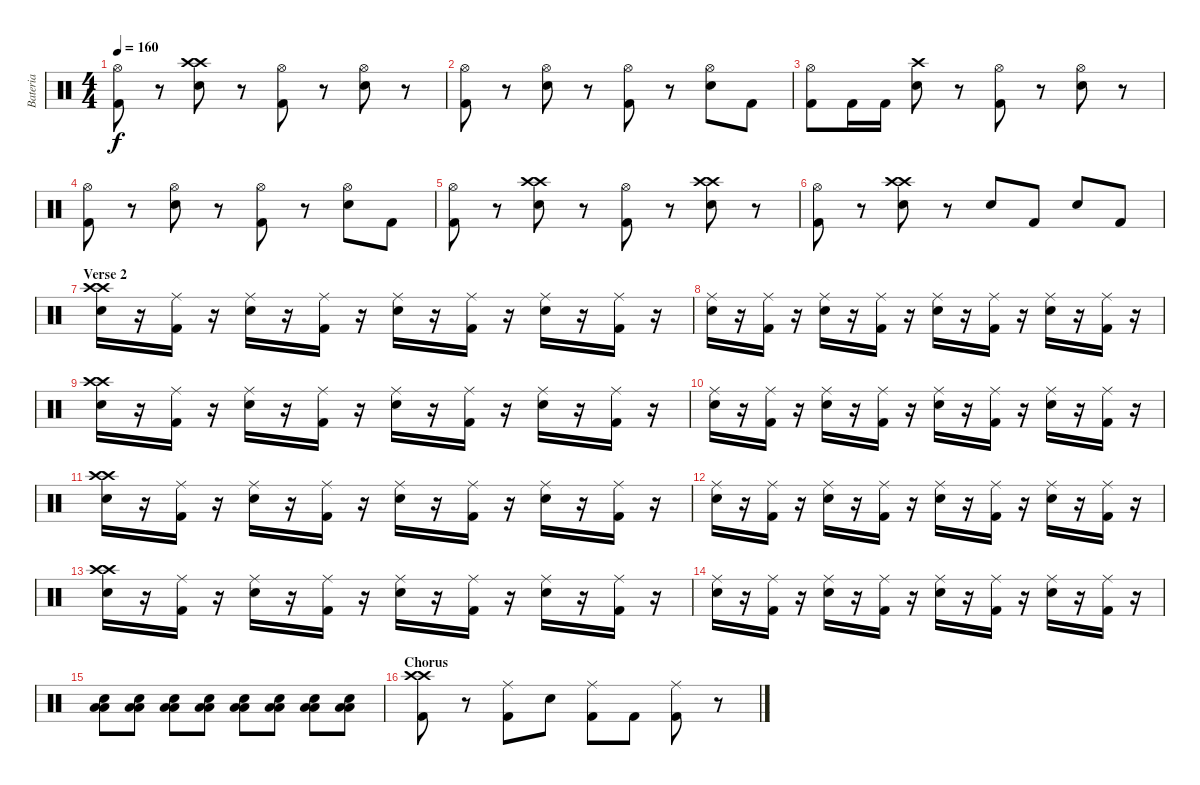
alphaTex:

\track ("Bateria" "Bateria") {instrument percussion}
\staff {score}
\articulation defaults
\ts (4 4)
\tempo 160
\clef neutral
\ks c
("Hi-Hat (open)" "Kick (hit) 2").8{dy f} r.8 ("Crash high (hit)" "Crash high (hit)" "Snare (hit) 2").8 r.8 ("Hi-Hat (open)" "Kick (hit) 2").8 r.8 ("Hi-Hat (open)" "Snare (hit) 2").8 r.8 |
("Hi-Hat (open)" "Kick (hit) 2").8 r.8 ("Hi-Hat (open)" "Snare (hit) 2").8 r.8 ("Hi-Hat (open)" "Kick (hit) 2").8 r.8 ("Hi-Hat (open)" "Snare (hit) 2").8 "Kick (hit) 2".8 |
("Hi-Hat (open)" "Kick (hit) 2").8 "Kick (hit) 2".16 "Kick (hit) 2".16 ("Crash high (hit)" "Snare (hit) 2").8 r.8 ("Hi-Hat (open)" "Kick (hit) 2").8 r.8 ("Hi-Hat (open)" "Snare (hit) 2").8 r.8 |
("Hi-Hat (open)" "Kick (hit) 2").8 r.8 ("Hi-Hat (open)" "Snare (hit) 2").8 r.8 ("Hi-Hat (open)" "Kick (hit) 2").8 r.8 ("Hi-Hat (open)" "Snare (hit) 2").8 "Kick (hit) 2".8 |
("Hi-Hat (open)" "Kick (hit) 2").8 r.8 ("Crash high (hit)" "Crash high (hit)" "Snare (hit) 2").8 r.8 ("Hi-Hat (open)" "Kick (hit) 2").8 r.8 ("Crash high (hit)" "Crash high (hit)" "Snare (hit) 2").8 r.8 |
("Hi-Hat (open)" "Kick (hit) 2").8 r.8 ("Crash high (hit)" "Crash high (hit)" "Snare (hit) 2").8 r.8 "Snare (hit) 2".8 "Kick (hit) 2".8 "Snare (hit) 2".8 "Kick (hit) 2".8 |
\section ("" "Verse 2")
("Crash high (hit)" "Crash high (hit)" "Snare (hit) 2").16 r.16 ("Ride (middle)" "Kick (hit) 2").16 r.16 ("Ride (middle)" "Snare (hit) 2").16 r.16 ("Ride (middle)" "Kick (hit) 2").16 r.16 ("Ride (middle)" "Snare (hit) 2").16 r.16 ("Ride (middle)" "Kick (hit) 2").16 r.16 ("Ride (middle)" "Snare (hit) 2").16 r.16 ("Ride (middle)" "Kick (hit) 2").16 r.16 |
("Ride (middle)" "Snare (hit) 2").16 r.16 ("Ride (middle)" "Kick (hit) 2").16 r.16 ("Ride (middle)" "Snare (hit) 2").16 r.16 ("Ride (middle)" "Kick (hit) 2").16 r.16 ("Ride (middle)" "Snare (hit) 2").16 r.16 ("Ride (middle)" "Kick (hit) 2").16 r.16 ("Ride (middle)" "Snare (hit) 2").16 r.16 ("Ride (middle)" "Kick (hit) 2").16 r.16 |
("Crash high (hit)" "Crash high (hit)" "Snare (hit) 2").16 r.16 ("Ride (middle)" "Kick (hit) 2").16 r.16 ("Ride (middle)" "Snare (hit) 2").16 r.16 ("Ride (middle)" "Kick (hit) 2").16 r.16 ("Ride (middle)" "Snare (hit) 2").16 r.16 ("Ride (middle)" "Kick (hit) 2").16 r.16 ("Ride (middle)" "Snare (hit) 2").16 r.16 ("Ride (middle)" "Kick (hit) 2").16 r.16 |
("Ride (middle)" "Snare (hit) 2").16 r.16 ("Ride (middle)" "Kick (hit) 2").16 r.16 ("Ride (middle)" "Snare (hit) 2").16 r.16 ("Ride (middle)" "Kick (hit) 2").16 r.16 ("Ride (middle)" "Snare (hit) 2").16 r.16 ("Ride (middle)" "Kick (hit) 2").16 r.16 ("Ride (middle)" "Snare (hit) 2").16 r.16 ("Ride (middle)" "Kick (hit) 2").16 r.16 |
("Crash high (hit)" "Crash high (hit)" "Snare (hit) 2").16 r.16 ("Ride (middle)" "Kick (hit) 2").16 r.16 ("Ride (middle)" "Snare (hit) 2").16 r.16 ("Ride (middle)" "Kick (hit) 2").16 r.16 ("Ride (middle)" "Snare (hit) 2").16 r.16 ("Ride (middle)" "Kick (hit) 2").16 r.16 ("Ride (middle)" "Snare (hit) 2").16 r.16 ("Ride (middle)" "Kick (hit) 2").16 r.16 |
("Ride (middle)" "Snare (hit) 2").16 r.16 ("Ride (middle)" "Kick (hit) 2").16 r.16 ("Ride (middle)" "Snare (hit) 2").16 r.16 ("Ride (middle)" "Kick (hit) 2").16 r.16 ("Ride (middle)" "Snare (hit) 2").16 r.16 ("Ride (middle)" "Kick (hit) 2").16 r.16 ("Ride (middle)" "Snare (hit) 2").16 r.16 ("Ride (middle)" "Kick (hit) 2").16 r.16 |
("Crash high (hit)" "Crash high (hit)" "Snare (hit) 2").16 r.16 ("Ride (middle)" "Kick (hit) 2").16 r.16 ("Ride (middle)" "Snare (hit) 2").16 r.16 ("Ride (middle)" "Kick (hit) 2").16 r.16 ("Ride (middle)" "Snare (hit) 2").16 r.16 ("Ride (middle)" "Kick (hit) 2").16 r.16 ("Ride (middle)" "Snare (hit) 2").16 r.16 ("Ride (middle)" "Kick (hit) 2").16 r.16 |
("Ride (middle)" "Snare (hit) 2").16 r.16 ("Ride (middle)" "Kick (hit) 2").16 r.16 ("Ride (middle)" "Snare (hit) 2").16 r.16 ("Ride (middle)" "Kick (hit) 2").16 r.16 ("Ride (middle)" "Snare (hit) 2").16 r.16 ("Ride (middle)" "Kick (hit) 2").16 r.16 ("Ride (middle)" "Snare (hit) 2").16 r.16 ("Ride (middle)" "Kick (hit) 2").16 r.16 |
("Low Floor Tom (hit)" "Low Floor Tom (hit)" "Snare (hit) 2").8 ("Low Floor Tom (hit)" "Low Floor Tom (hit)" "Snare (hit) 2").8 ("Low Floor Tom (hit)" "Low Floor Tom (hit)" "Snare (hit) 2").8 ("Low Floor Tom (hit)" "Low Floor Tom (hit)" "Snare (hit) 2").8 ("Low Floor Tom (hit)" "Low Floor Tom (hit)" "Snare (hit) 2").8 ("Low Floor Tom (hit)" "Low Floor Tom (hit)" "Snare (hit) 2").8 ("Low Floor Tom (hit)" "Low Floor Tom (hit)" "Snare (hit) 2").8 ("Low Floor Tom (hit)" "Low Floor Tom (hit)" "Snare (hit) 2").8 |
\section ("" "Chorus")
("Crash high (hit)" "Crash high (hit)" "Kick (hit) 2").8 r.8 ("Ride (middle)" "Kick (hit) 2").8 "Snare (hit) 2".8 ("Ride (middle)" "Kick (hit) 2").8 "Kick (hit) 2".8 ("Ride (middle)" "Kick (hit) 2").8 r.8
